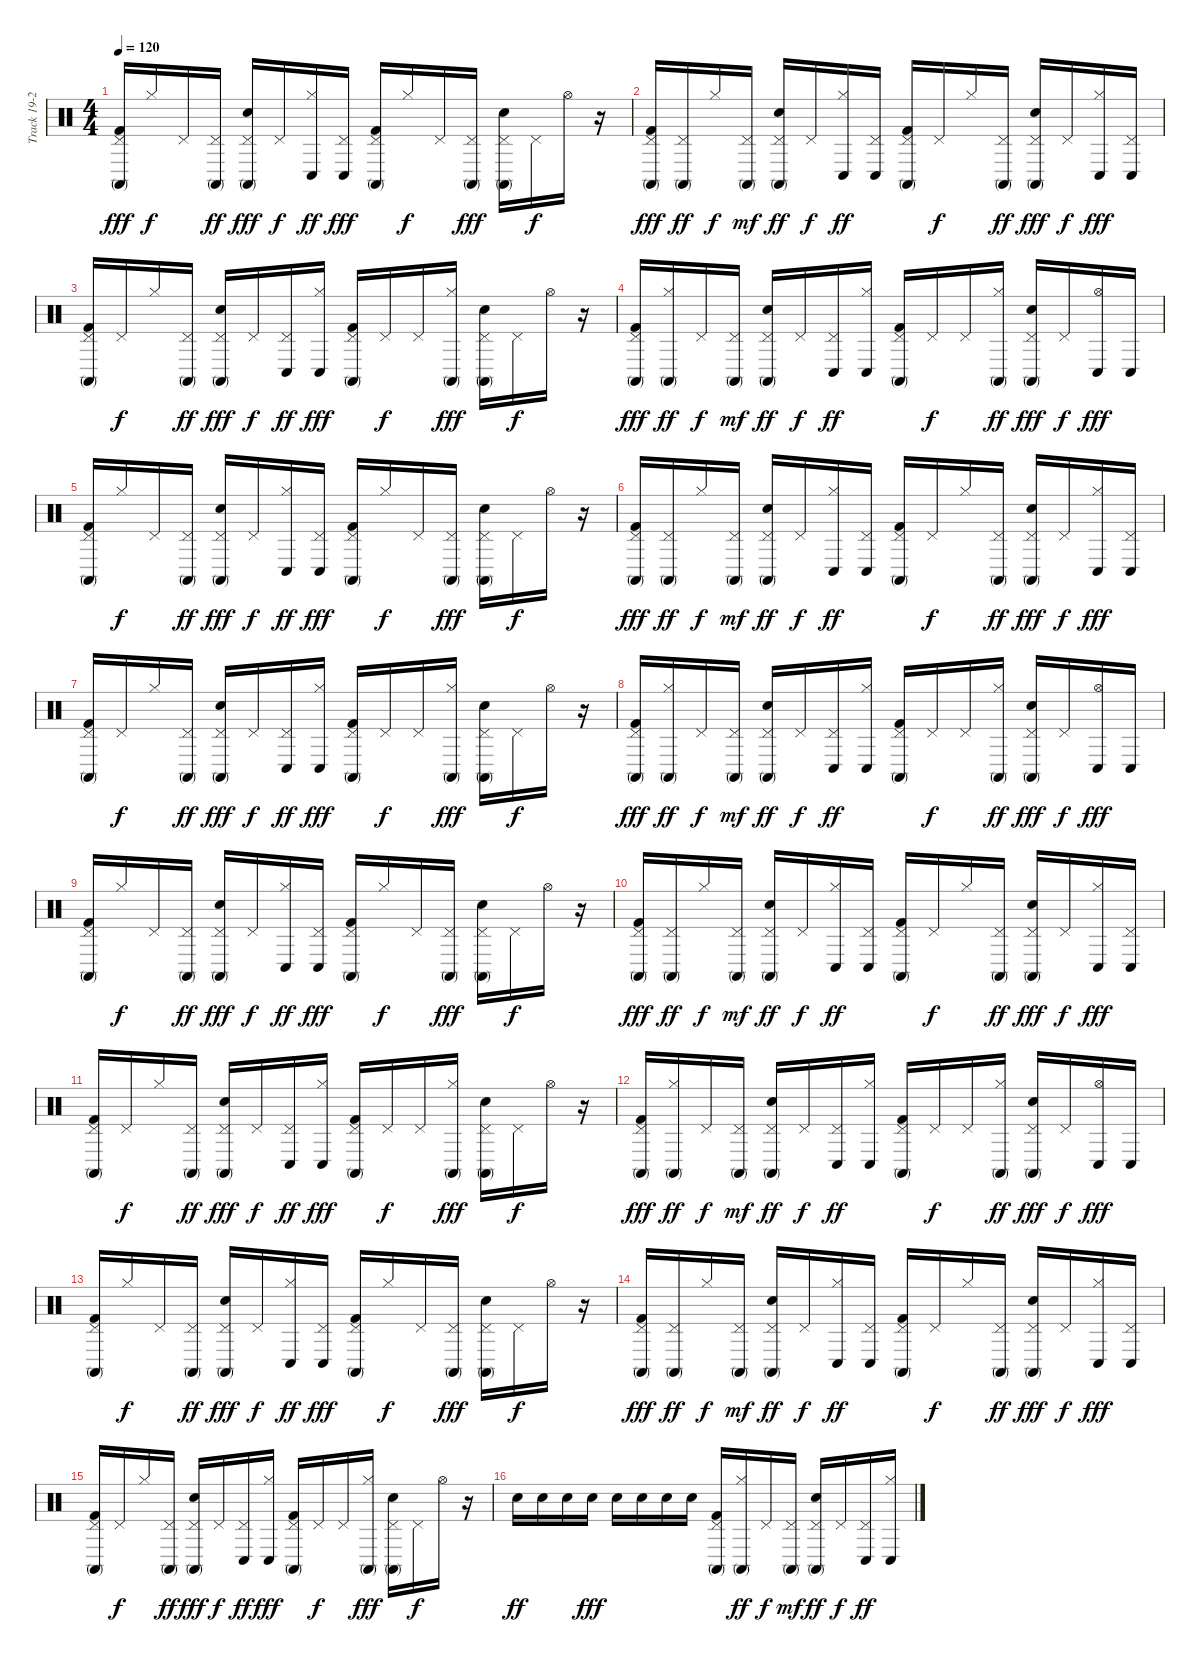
\track ("Track 19-20-21" "Track 19-2") {instrument percussion}
\staff {score}
\articulation defaults
\ts (4 4)
\tempo 120
\clef neutral
\ks c
("Pedal Hi-Hat (hit)" "Conga high (mute)" "Kick (hit) 2").16{dy fff} "Hi-Hat (closed)".16{dy f} "Pedal Hi-Hat (hit)".16 ("Pedal Hi-Hat (hit)" "Conga high (mute)").16{dy ff} ("Pedal Hi-Hat (hit)" "Conga high (mute)" "Snare (hit) 2").16{dy fff} "Pedal Hi-Hat (hit)".16{dy f} ("Hi-Hat (closed)" "Conga low (hit)").16{dy ff} ("Pedal Hi-Hat (hit)" "Conga low (hit)").16{dy fff} ("Pedal Hi-Hat (hit)" "Conga high (mute)" "Kick (hit) 2").16 "Hi-Hat (closed)".16{dy f} "Pedal Hi-Hat (hit)".16 ("Pedal Hi-Hat (hit)" "Conga high (mute)").16{dy fff} ("Pedal Hi-Hat (hit)" "Conga high (mute)" "Snare (hit) 2").16 "Pedal Hi-Hat (hit)".16{dy f} "Hi-Hat (open)".16 r.16 |
("Conga high (mute)" "Kick (hit) 2" "Pedal Hi-Hat (hit)").16{dy fff} ("Pedal Hi-Hat (hit)" "Conga high (mute)").16{dy ff} "Hi-Hat (closed)".16{dy f} ("Conga high (mute)" "Pedal Hi-Hat (hit)").16{dy mf} ("Conga high (mute)" "Snare (hit) 2" "Pedal Hi-Hat (hit)").16{dy ff} "Pedal Hi-Hat (hit)".16{dy f} ("Hi-Hat (closed)" "Conga low (hit)").16{dy ff} ("Pedal Hi-Hat (hit)" "Conga low (hit)").16 ("Conga high (mute)" "Kick (hit) 2" "Pedal Hi-Hat (hit)").16 "Pedal Hi-Hat (hit)".16{dy f} "Hi-Hat (closed)".16 ("Pedal Hi-Hat (hit)" "Conga high (mute)").16{dy ff} ("Conga high (mute)" "Snare (hit) 2" "Pedal Hi-Hat (hit)").16{dy fff} "Pedal Hi-Hat (hit)".16{dy f} ("Hi-Hat (closed)" "Conga low (hit)").16{dy fff} ("Pedal Hi-Hat (hit)" "Conga low (hit)").16 |
("Pedal Hi-Hat (hit)" "Conga high (mute)" "Kick (hit) 2").16 "Pedal Hi-Hat (hit)".16{dy f} "Hi-Hat (closed)".16 ("Pedal Hi-Hat (hit)" "Conga high (mute)").16{dy ff} ("Pedal Hi-Hat (hit)" "Conga high (mute)" "Snare (hit) 2").16{dy fff} "Pedal Hi-Hat (hit)".16{dy f} ("Pedal Hi-Hat (hit)" "Conga low (hit)").16{dy ff} ("Hi-Hat (closed)" "Conga low (hit)").16{dy fff} ("Pedal Hi-Hat (hit)" "Conga high (mute)" "Kick (hit) 2").16 "Pedal Hi-Hat (hit)".16{dy f} "Pedal Hi-Hat (hit)".16 ("Hi-Hat (closed)" "Conga high (mute)").16{dy fff} ("Pedal Hi-Hat (hit)" "Conga high (mute)" "Snare (hit) 2").16 "Pedal Hi-Hat (hit)".16{dy f} "Hi-Hat (open)".16 r.16 |
("Conga high (mute)" "Kick (hit) 2" "Pedal Hi-Hat (hit)").16{dy fff} ("Hi-Hat (closed)" "Conga high (mute)").16{dy ff} "Pedal Hi-Hat (hit)".16{dy f} ("Conga high (mute)" "Pedal Hi-Hat (hit)").16{dy mf} ("Conga high (mute)" "Snare (hit) 2" "Pedal Hi-Hat (hit)").16{dy ff} "Pedal Hi-Hat (hit)".16{dy f} ("Conga low (hit)" "Pedal Hi-Hat (hit)").16{dy ff} ("Hi-Hat (closed)" "Conga low (hit)").16 ("Conga high (mute)" "Kick (hit) 2" "Pedal Hi-Hat (hit)").16 "Pedal Hi-Hat (hit)".16{dy f} "Pedal Hi-Hat (hit)".16 ("Hi-Hat (closed)" "Conga high (mute)").16{dy ff} ("Conga high (mute)" "Snare (hit) 2" "Pedal Hi-Hat (hit)").16{dy fff} "Pedal Hi-Hat (hit)".16{dy f} ("Hi-Hat (open)" "Conga low (hit)").16{dy fff} "Conga low (hit)".16 |
("Pedal Hi-Hat (hit)" "Conga high (mute)" "Kick (hit) 2").16 "Hi-Hat (closed)".16{dy f} "Pedal Hi-Hat (hit)".16 ("Pedal Hi-Hat (hit)" "Conga high (mute)").16{dy ff} ("Pedal Hi-Hat (hit)" "Conga high (mute)" "Snare (hit) 2").16{dy fff} "Pedal Hi-Hat (hit)".16{dy f} ("Hi-Hat (closed)" "Conga low (hit)").16{dy ff} ("Pedal Hi-Hat (hit)" "Conga low (hit)").16{dy fff} ("Pedal Hi-Hat (hit)" "Conga high (mute)" "Kick (hit) 2").16 "Hi-Hat (closed)".16{dy f} "Pedal Hi-Hat (hit)".16 ("Pedal Hi-Hat (hit)" "Conga high (mute)").16{dy fff} ("Pedal Hi-Hat (hit)" "Conga high (mute)" "Snare (hit) 2").16 "Pedal Hi-Hat (hit)".16{dy f} "Hi-Hat (open)".16 r.16 |
("Conga high (mute)" "Kick (hit) 2" "Pedal Hi-Hat (hit)").16{dy fff} ("Pedal Hi-Hat (hit)" "Conga high (mute)").16{dy ff} "Hi-Hat (closed)".16{dy f} ("Conga high (mute)" "Pedal Hi-Hat (hit)").16{dy mf} ("Conga high (mute)" "Snare (hit) 2" "Pedal Hi-Hat (hit)").16{dy ff} "Pedal Hi-Hat (hit)".16{dy f} ("Hi-Hat (closed)" "Conga low (hit)").16{dy ff} ("Pedal Hi-Hat (hit)" "Conga low (hit)").16 ("Conga high (mute)" "Kick (hit) 2" "Pedal Hi-Hat (hit)").16 "Pedal Hi-Hat (hit)".16{dy f} "Hi-Hat (closed)".16 ("Pedal Hi-Hat (hit)" "Conga high (mute)").16{dy ff} ("Conga high (mute)" "Snare (hit) 2" "Pedal Hi-Hat (hit)").16{dy fff} "Pedal Hi-Hat (hit)".16{dy f} ("Hi-Hat (closed)" "Conga low (hit)").16{dy fff} ("Pedal Hi-Hat (hit)" "Conga low (hit)").16 |
("Pedal Hi-Hat (hit)" "Conga high (mute)" "Kick (hit) 2").16 "Pedal Hi-Hat (hit)".16{dy f} "Hi-Hat (closed)".16 ("Pedal Hi-Hat (hit)" "Conga high (mute)").16{dy ff} ("Pedal Hi-Hat (hit)" "Conga high (mute)" "Snare (hit) 2").16{dy fff} "Pedal Hi-Hat (hit)".16{dy f} ("Pedal Hi-Hat (hit)" "Conga low (hit)").16{dy ff} ("Hi-Hat (closed)" "Conga low (hit)").16{dy fff} ("Pedal Hi-Hat (hit)" "Conga high (mute)" "Kick (hit) 2").16 "Pedal Hi-Hat (hit)".16{dy f} "Pedal Hi-Hat (hit)".16 ("Hi-Hat (closed)" "Conga high (mute)").16{dy fff} ("Pedal Hi-Hat (hit)" "Conga high (mute)" "Snare (hit) 2").16 "Pedal Hi-Hat (hit)".16{dy f} "Hi-Hat (open)".16 r.16 |
("Conga high (mute)" "Kick (hit) 2" "Pedal Hi-Hat (hit)").16{dy fff} ("Hi-Hat (closed)" "Conga high (mute)").16{dy ff} "Pedal Hi-Hat (hit)".16{dy f} ("Conga high (mute)" "Pedal Hi-Hat (hit)").16{dy mf} ("Conga high (mute)" "Snare (hit) 2" "Pedal Hi-Hat (hit)").16{dy ff} "Pedal Hi-Hat (hit)".16{dy f} ("Conga low (hit)" "Pedal Hi-Hat (hit)").16{dy ff} ("Hi-Hat (closed)" "Conga low (hit)").16 ("Conga high (mute)" "Kick (hit) 2" "Pedal Hi-Hat (hit)").16 "Pedal Hi-Hat (hit)".16{dy f} "Pedal Hi-Hat (hit)".16 ("Hi-Hat (closed)" "Conga high (mute)").16{dy ff} ("Conga high (mute)" "Snare (hit) 2" "Pedal Hi-Hat (hit)").16{dy fff} "Pedal Hi-Hat (hit)".16{dy f} ("Hi-Hat (open)" "Conga low (hit)").16{dy fff} "Conga low (hit)".16 |
("Pedal Hi-Hat (hit)" "Conga high (mute)" "Kick (hit) 2").16 "Hi-Hat (closed)".16{dy f} "Pedal Hi-Hat (hit)".16 ("Pedal Hi-Hat (hit)" "Conga high (mute)").16{dy ff} ("Pedal Hi-Hat (hit)" "Conga high (mute)" "Snare (hit) 2").16{dy fff} "Pedal Hi-Hat (hit)".16{dy f} ("Hi-Hat (closed)" "Conga low (hit)").16{dy ff} ("Pedal Hi-Hat (hit)" "Conga low (hit)").16{dy fff} ("Pedal Hi-Hat (hit)" "Conga high (mute)" "Kick (hit) 2").16 "Hi-Hat (closed)".16{dy f} "Pedal Hi-Hat (hit)".16 ("Pedal Hi-Hat (hit)" "Conga high (mute)").16{dy fff} ("Pedal Hi-Hat (hit)" "Conga high (mute)" "Snare (hit) 2").16 "Pedal Hi-Hat (hit)".16{dy f} "Hi-Hat (open)".16 r.16 |
("Conga high (mute)" "Kick (hit) 2" "Pedal Hi-Hat (hit)").16{dy fff} ("Pedal Hi-Hat (hit)" "Conga high (mute)").16{dy ff} "Hi-Hat (closed)".16{dy f} ("Conga high (mute)" "Pedal Hi-Hat (hit)").16{dy mf} ("Conga high (mute)" "Snare (hit) 2" "Pedal Hi-Hat (hit)").16{dy ff} "Pedal Hi-Hat (hit)".16{dy f} ("Hi-Hat (closed)" "Conga low (hit)").16{dy ff} ("Pedal Hi-Hat (hit)" "Conga low (hit)").16 ("Conga high (mute)" "Kick (hit) 2" "Pedal Hi-Hat (hit)").16 "Pedal Hi-Hat (hit)".16{dy f} "Hi-Hat (closed)".16 ("Pedal Hi-Hat (hit)" "Conga high (mute)").16{dy ff} ("Conga high (mute)" "Snare (hit) 2" "Pedal Hi-Hat (hit)").16{dy fff} "Pedal Hi-Hat (hit)".16{dy f} ("Hi-Hat (closed)" "Conga low (hit)").16{dy fff} ("Pedal Hi-Hat (hit)" "Conga low (hit)").16 |
("Pedal Hi-Hat (hit)" "Conga high (mute)" "Kick (hit) 2").16 "Pedal Hi-Hat (hit)".16{dy f} "Hi-Hat (closed)".16 ("Pedal Hi-Hat (hit)" "Conga high (mute)").16{dy ff} ("Pedal Hi-Hat (hit)" "Conga high (mute)" "Snare (hit) 2").16{dy fff} "Pedal Hi-Hat (hit)".16{dy f} ("Pedal Hi-Hat (hit)" "Conga low (hit)").16{dy ff} ("Hi-Hat (closed)" "Conga low (hit)").16{dy fff} ("Pedal Hi-Hat (hit)" "Conga high (mute)" "Kick (hit) 2").16 "Pedal Hi-Hat (hit)".16{dy f} "Pedal Hi-Hat (hit)".16 ("Hi-Hat (closed)" "Conga high (mute)").16{dy fff} ("Pedal Hi-Hat (hit)" "Conga high (mute)" "Snare (hit) 2").16 "Pedal Hi-Hat (hit)".16{dy f} "Hi-Hat (open)".16 r.16 |
("Conga high (mute)" "Kick (hit) 2" "Pedal Hi-Hat (hit)").16{dy fff} ("Hi-Hat (closed)" "Conga high (mute)").16{dy ff} "Pedal Hi-Hat (hit)".16{dy f} ("Conga high (mute)" "Pedal Hi-Hat (hit)").16{dy mf} ("Conga high (mute)" "Snare (hit) 2" "Pedal Hi-Hat (hit)").16{dy ff} "Pedal Hi-Hat (hit)".16{dy f} ("Conga low (hit)" "Pedal Hi-Hat (hit)").16{dy ff} ("Hi-Hat (closed)" "Conga low (hit)").16 ("Conga high (mute)" "Kick (hit) 2" "Pedal Hi-Hat (hit)").16 "Pedal Hi-Hat (hit)".16{dy f} "Pedal Hi-Hat (hit)".16 ("Hi-Hat (closed)" "Conga high (mute)").16{dy ff} ("Conga high (mute)" "Snare (hit) 2" "Pedal Hi-Hat (hit)").16{dy fff} "Pedal Hi-Hat (hit)".16{dy f} ("Hi-Hat (open)" "Conga low (hit)").16{dy fff} "Conga low (hit)".16 |
("Pedal Hi-Hat (hit)" "Conga high (mute)" "Kick (hit) 2").16 "Hi-Hat (closed)".16{dy f} "Pedal Hi-Hat (hit)".16 ("Pedal Hi-Hat (hit)" "Conga high (mute)").16{dy ff} ("Pedal Hi-Hat (hit)" "Conga high (mute)" "Snare (hit) 2").16{dy fff} "Pedal Hi-Hat (hit)".16{dy f} ("Hi-Hat (closed)" "Conga low (hit)").16{dy ff} ("Pedal Hi-Hat (hit)" "Conga low (hit)").16{dy fff} ("Pedal Hi-Hat (hit)" "Conga high (mute)" "Kick (hit) 2").16 "Hi-Hat (closed)".16{dy f} "Pedal Hi-Hat (hit)".16 ("Pedal Hi-Hat (hit)" "Conga high (mute)").16{dy fff} ("Pedal Hi-Hat (hit)" "Conga high (mute)" "Snare (hit) 2").16 "Pedal Hi-Hat (hit)".16{dy f} "Hi-Hat (open)".16 r.16 |
("Conga high (mute)" "Kick (hit) 2" "Pedal Hi-Hat (hit)").16{dy fff} ("Pedal Hi-Hat (hit)" "Conga high (mute)").16{dy ff} "Hi-Hat (closed)".16{dy f} ("Conga high (mute)" "Pedal Hi-Hat (hit)").16{dy mf} ("Conga high (mute)" "Snare (hit) 2" "Pedal Hi-Hat (hit)").16{dy ff} "Pedal Hi-Hat (hit)".16{dy f} ("Hi-Hat (closed)" "Conga low (hit)").16{dy ff} ("Pedal Hi-Hat (hit)" "Conga low (hit)").16 ("Conga high (mute)" "Kick (hit) 2" "Pedal Hi-Hat (hit)").16 "Pedal Hi-Hat (hit)".16{dy f} "Hi-Hat (closed)".16 ("Pedal Hi-Hat (hit)" "Conga high (mute)").16{dy ff} ("Conga high (mute)" "Snare (hit) 2" "Pedal Hi-Hat (hit)").16{dy fff} "Pedal Hi-Hat (hit)".16{dy f} ("Hi-Hat (closed)" "Conga low (hit)").16{dy fff} ("Pedal Hi-Hat (hit)" "Conga low (hit)").16 |
("Pedal Hi-Hat (hit)" "Conga high (mute)" "Kick (hit) 2").16 "Pedal Hi-Hat (hit)".16{dy f} "Hi-Hat (closed)".16 ("Pedal Hi-Hat (hit)" "Conga high (mute)").16{dy ff} ("Pedal Hi-Hat (hit)" "Conga high (mute)" "Snare (hit) 2").16{dy fff} "Pedal Hi-Hat (hit)".16{dy f} ("Pedal Hi-Hat (hit)" "Conga low (hit)").16{dy ff} ("Hi-Hat (closed)" "Conga low (hit)").16{dy fff} ("Pedal Hi-Hat (hit)" "Conga high (mute)" "Kick (hit) 2").16 "Pedal Hi-Hat (hit)".16{dy f} "Pedal Hi-Hat (hit)".16 ("Hi-Hat (closed)" "Conga high (mute)").16{dy fff} ("Pedal Hi-Hat (hit)" "Conga high (mute)" "Snare (hit) 2").16 "Pedal Hi-Hat (hit)".16{dy f} "Hi-Hat (open)".16 r.16 |
"Snare (hit) 2".16{dy ff} "Snare (hit) 2".16 "Snare (hit) 2".16 "Snare (hit) 2".16{dy fff} "Snare (hit) 2".16 "Snare (hit) 2".16 "Snare (hit) 2".16 "Snare (hit) 2".16 ("Conga high (mute)" "Kick (hit) 2" "Pedal Hi-Hat (hit)").16 ("Hi-Hat (closed)" "Conga high (mute)").16{dy ff} "Pedal Hi-Hat (hit)".16{dy f} ("Conga high (mute)" "Pedal Hi-Hat (hit)").16{dy mf} ("Conga high (mute)" "Snare (hit) 2" "Pedal Hi-Hat (hit)").16{dy ff} "Pedal Hi-Hat (hit)".16{dy f} ("Conga low (hit)" "Pedal Hi-Hat (hit)").16{dy ff} ("Hi-Hat (closed)" "Conga low (hit)").16
